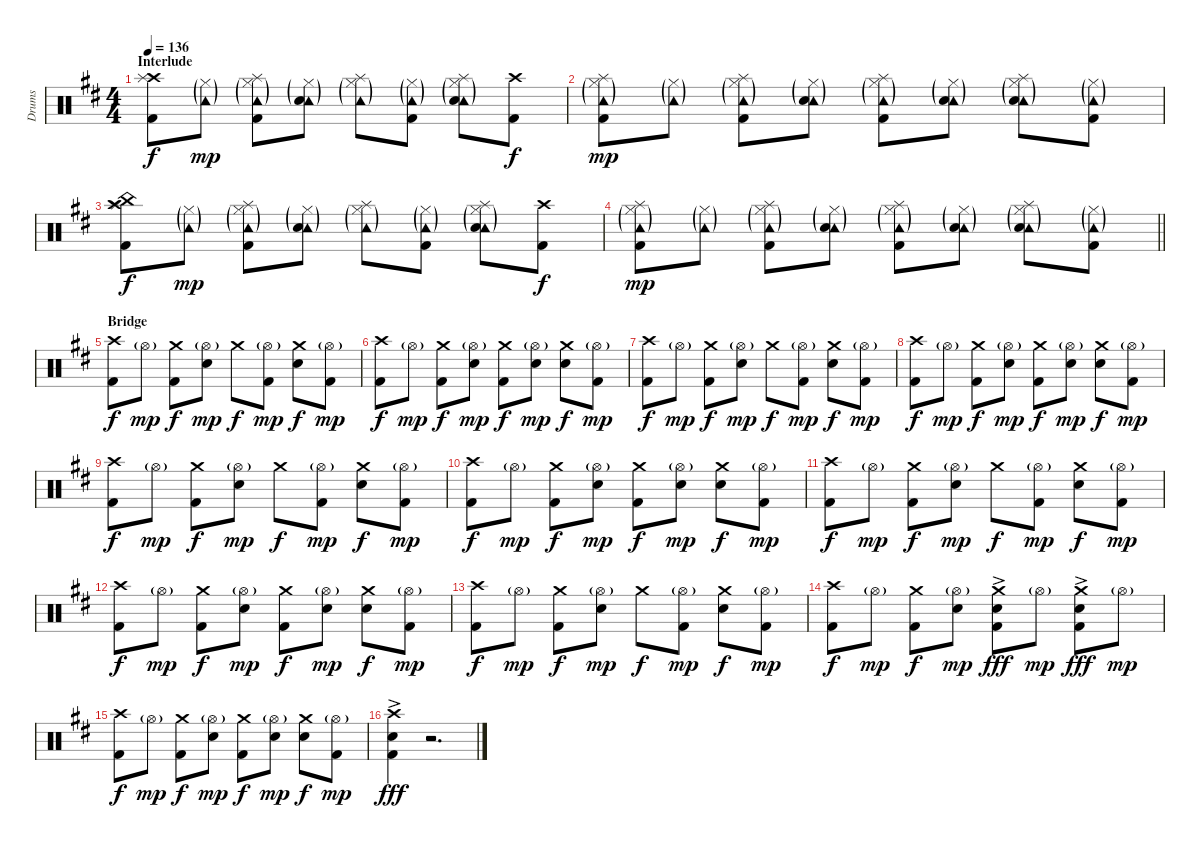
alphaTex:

\track ("Drums" "Drums") {instrument percussion}
\staff {score}
\articulation defaults
\ts (4 4)
\section ("" "Interlude")
\tempo 136
\clef neutral
\ks d
("Crash high (hit)" "Splash (hit)" "Kick (hit) 2").8{dy f} ("Hi-Hat (closed)"{g} "Tambourine (hit)"{g}).8{dy mp} ("Hi-Hat (closed)"{g} "Splash (hit)" "Tambourine (hit)"{g} "Kick (hit) 2").8 ("Hi-Hat (closed)"{g} "Tambourine (hit)"{g} "Snare (hit) 2").8 ("Hi-Hat (closed)"{g} "Splash (hit)" "Tambourine (hit)"{g}).8 ("Hi-Hat (closed)"{g} "Tambourine (hit)"{g} "Kick (hit) 2").8 ("Hi-Hat (closed)"{g} "Splash (hit)" "Tambourine (hit)"{g} "Snare (hit) 2").8 ("Crash high (hit)" "Kick (hit) 2").8{dy f} |
("Hi-Hat (closed)"{g} "Splash (hit)" "Tambourine (hit)"{g} "Kick (hit) 2").8{dy mp} ("Hi-Hat (closed)"{g} "Tambourine (hit)"{g}).8 ("Hi-Hat (closed)"{g} "Splash (hit)" "Tambourine (hit)"{g} "Kick (hit) 2").8 ("Hi-Hat (closed)"{g} "Tambourine (hit)"{g} "Snare (hit) 2").8 ("Hi-Hat (closed)"{g} "Splash (hit)" "Tambourine (hit)"{g} "Kick (hit) 2").8 ("Hi-Hat (closed)"{g} "Tambourine (hit)"{g} "Snare (hit) 2").8 ("Hi-Hat (closed)"{g} "Splash (hit)" "Tambourine (hit)"{g} "Snare (hit) 2").8 ("Hi-Hat (closed)"{g} "Tambourine (hit)"{g} "Kick (hit) 2").8 |
("Crash high (hit)" "China (hit)" "Splash (hit)" "Kick (hit) 2").8{dy f} ("Hi-Hat (closed)"{g} "Tambourine (hit)"{g}).8{dy mp} ("Hi-Hat (closed)"{g} "Splash (hit)" "Tambourine (hit)"{g} "Kick (hit) 2").8 ("Hi-Hat (closed)"{g} "Tambourine (hit)"{g} "Snare (hit) 2").8 ("Hi-Hat (closed)"{g} "Splash (hit)" "Tambourine (hit)"{g}).8 ("Hi-Hat (closed)"{g} "Tambourine (hit)"{g} "Kick (hit) 2").8 ("Hi-Hat (closed)"{g} "Splash (hit)" "Tambourine (hit)"{g} "Snare (hit) 2").8 ("Crash high (hit)" "Kick (hit) 2").8{dy f} |
\barLineRight lightlight
("Hi-Hat (closed)"{g} "Splash (hit)" "Tambourine (hit)"{g} "Kick (hit) 2").8{dy mp} ("Hi-Hat (closed)"{g} "Tambourine (hit)"{g}).8 ("Hi-Hat (closed)"{g} "Splash (hit)" "Tambourine (hit)"{g} "Kick (hit) 2").8 ("Hi-Hat (closed)"{g} "Tambourine (hit)"{g} "Snare (hit) 2").8 ("Hi-Hat (closed)"{g} "Splash (hit)" "Tambourine (hit)"{g} "Kick (hit) 2").8 ("Hi-Hat (closed)"{g} "Tambourine (hit)"{g} "Snare (hit) 2").8 ("Hi-Hat (closed)"{g} "Splash (hit)" "Tambourine (hit)"{g} "Snare (hit) 2").8 ("Hi-Hat (closed)"{g} "Tambourine (hit)"{g} "Kick (hit) 2").8 |
\section ("" "Bridge")
("Crash high (hit)" "Kick (hit) 2").8{dy f} "Hi-Hat (open)"{g}.8{dy mp} ("Crash medium (hit)" "Kick (hit) 2").8{dy f} ("Hi-Hat (open)"{g} "Snare (hit) 2").8{dy mp} "Crash medium (hit)".8{dy f} ("Hi-Hat (open)"{g} "Kick (hit) 2").8{dy mp} ("Crash medium (hit)" "Snare (hit) 2").8{dy f} ("Hi-Hat (open)"{g} "Kick (hit) 2").8{dy mp} |
("Crash high (hit)" "Kick (hit) 2").8{dy f} "Hi-Hat (open)"{g}.8{dy mp} ("Crash medium (hit)" "Kick (hit) 2").8{dy f} ("Hi-Hat (open)"{g} "Snare (hit) 2").8{dy mp} ("Crash medium (hit)" "Kick (hit) 2").8{dy f} ("Hi-Hat (open)"{g} "Snare (hit) 2").8{dy mp} ("Crash medium (hit)" "Snare (hit) 2").8{dy f} ("Hi-Hat (open)"{g} "Kick (hit) 2").8{dy mp} |
("Crash high (hit)" "Kick (hit) 2").8{dy f} "Hi-Hat (open)"{g}.8{dy mp} ("Crash medium (hit)" "Kick (hit) 2").8{dy f} ("Hi-Hat (open)"{g} "Snare (hit) 2").8{dy mp} "Crash medium (hit)".8{dy f} ("Hi-Hat (open)"{g} "Kick (hit) 2").8{dy mp} ("Crash medium (hit)" "Snare (hit) 2").8{dy f} ("Hi-Hat (open)"{g} "Kick (hit) 2").8{dy mp} |
("Crash high (hit)" "Kick (hit) 2").8{dy f} "Hi-Hat (open)"{g}.8{dy mp} ("Crash medium (hit)" "Kick (hit) 2").8{dy f} ("Hi-Hat (open)"{g} "Snare (hit) 2").8{dy mp} ("Crash medium (hit)" "Kick (hit) 2").8{dy f} ("Hi-Hat (open)"{g} "Snare (hit) 2").8{dy mp} ("Crash medium (hit)" "Snare (hit) 2").8{dy f} ("Hi-Hat (open)"{g} "Kick (hit) 2").8{dy mp} |
("Crash high (hit)" "Kick (hit) 2").8{dy f} "Hi-Hat (open)"{g}.8{dy mp} ("Crash medium (hit)" "Kick (hit) 2").8{dy f} ("Hi-Hat (open)"{g} "Snare (hit) 2").8{dy mp} "Crash medium (hit)".8{dy f} ("Hi-Hat (open)"{g} "Kick (hit) 2").8{dy mp} ("Crash medium (hit)" "Snare (hit) 2").8{dy f} ("Hi-Hat (open)"{g} "Kick (hit) 2").8{dy mp} |
("Crash high (hit)" "Kick (hit) 2").8{dy f} "Hi-Hat (open)"{g}.8{dy mp} ("Crash medium (hit)" "Kick (hit) 2").8{dy f} ("Hi-Hat (open)"{g} "Snare (hit) 2").8{dy mp} ("Crash medium (hit)" "Kick (hit) 2").8{dy f} ("Hi-Hat (open)"{g} "Snare (hit) 2").8{dy mp} ("Crash medium (hit)" "Snare (hit) 2").8{dy f} ("Hi-Hat (open)"{g} "Kick (hit) 2").8{dy mp} |
("Crash high (hit)" "Kick (hit) 2").8{dy f} "Hi-Hat (open)"{g}.8{dy mp} ("Crash medium (hit)" "Kick (hit) 2").8{dy f} ("Hi-Hat (open)"{g} "Snare (hit) 2").8{dy mp} "Crash medium (hit)".8{dy f} ("Hi-Hat (open)"{g} "Kick (hit) 2").8{dy mp} ("Crash medium (hit)" "Snare (hit) 2").8{dy f} ("Hi-Hat (open)"{g} "Kick (hit) 2").8{dy mp} |
("Crash high (hit)" "Kick (hit) 2").8{dy f} "Hi-Hat (open)"{g}.8{dy mp} ("Crash medium (hit)" "Kick (hit) 2").8{dy f} ("Hi-Hat (open)"{g} "Snare (hit) 2").8{dy mp} ("Crash medium (hit)" "Kick (hit) 2").8{dy f} ("Hi-Hat (open)"{g} "Snare (hit) 2").8{dy mp} ("Crash medium (hit)" "Snare (hit) 2").8{dy f} ("Hi-Hat (open)"{g} "Kick (hit) 2").8{dy mp} |
("Crash high (hit)" "Kick (hit) 2").8{dy f} "Hi-Hat (open)"{g}.8{dy mp} ("Crash medium (hit)" "Kick (hit) 2").8{dy f} ("Hi-Hat (open)"{g} "Snare (hit) 2").8{dy mp} "Crash medium (hit)".8{dy f} ("Hi-Hat (open)"{g} "Kick (hit) 2").8{dy mp} ("Crash medium (hit)" "Snare (hit) 2").8{dy f} ("Hi-Hat (open)"{g} "Kick (hit) 2").8{dy mp} |
("Crash high (hit)" "Kick (hit) 2").8{dy f} "Hi-Hat (open)"{g}.8{dy mp} ("Crash medium (hit)" "Kick (hit) 2").8{dy f} ("Hi-Hat (open)"{g} "Snare (hit) 2").8{dy mp} ("Crash medium (hit)" "Snare (hit) 2"{ac} "Kick (hit) 2"{ac}).8{dy fff} "Hi-Hat (open)"{g}.8{dy mp} ("Crash medium (hit)" "Snare (hit) 2"{ac} "Kick (hit) 2"{ac}).8{dy fff} "Hi-Hat (open)"{g}.8{dy mp} |
("Crash high (hit)" "Kick (hit) 2").8{dy f} "Hi-Hat (open)"{g}.8{dy mp} ("Crash medium (hit)" "Kick (hit) 2").8{dy f} ("Hi-Hat (open)"{g} "Snare (hit) 2").8{dy mp} ("Crash medium (hit)" "Kick (hit) 2").8{dy f} ("Hi-Hat (open)"{g} "Snare (hit) 2").8{dy mp} ("Crash medium (hit)" "Snare (hit) 2").8{dy f} ("Hi-Hat (open)"{g} "Kick (hit) 2").8{dy mp} |
("Crash high (hit)" "Snare (hit) 2"{ac} "Kick (hit) 2"{ac}).4{dy fff} r.2{d}
